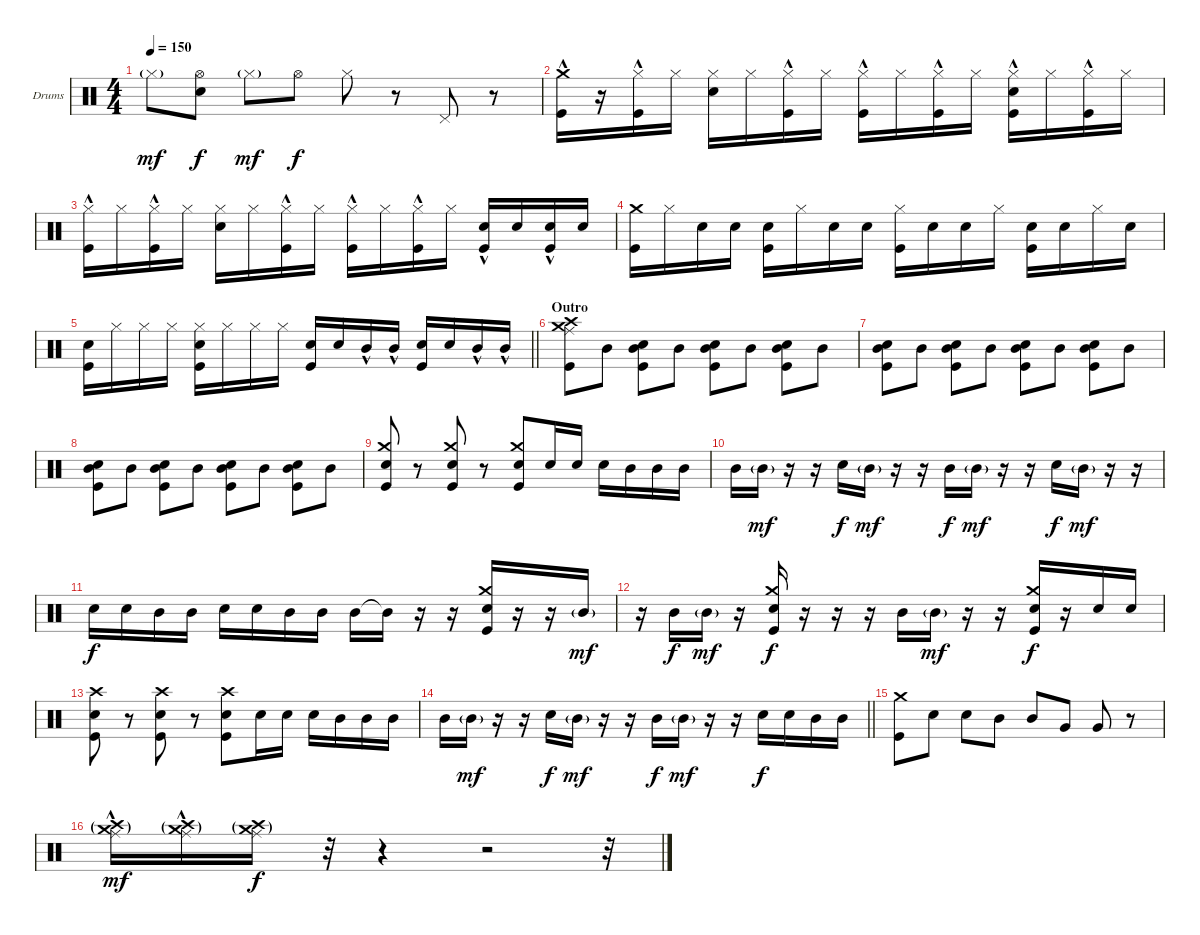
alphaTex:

\bracketExtendMode groupsimilarinstruments
\firstSystemTrackNameOrientation horizontal
\otherSystemsTrackNameOrientation horizontal
\track ("Drumkit" "Drums") {instrument percussion}
\staff {score}
\articulation defaults
\ts (4 4)
\tempo 150
\clef neutral
\ks c "Hi-Hat (closed)"{g}.8{dy mf}
("Hi-Hat (open)" "Snare (hit) 2").8{dy f} "Hi-Hat (closed)"{g}.8{dy mf} "Hi-Hat (open)".8{dy f} "Hi-Hat (closed)".8 r.8 "Pedal Hi-Hat (hit)".8 r.8 |
("Crash medium (hit)" "Kick (hit)"{hac}).16 r.16 ("Hi-Hat (closed)" "Kick (hit)"{hac}).16 "Hi-Hat (closed)".16 ("Hi-Hat (closed)" "Snare (hit) 2").16 "Hi-Hat (closed)".16 ("Hi-Hat (closed)" "Kick (hit)"{hac}).16 "Hi-Hat (closed)".16 ("Hi-Hat (closed)" "Kick (hit)"{hac}).16 "Hi-Hat (closed)".16 ("Hi-Hat (closed)" "Kick (hit)"{hac}).16 "Hi-Hat (closed)".16 ("Hi-Hat (closed)" "Snare (hit) 2" "Kick (hit)"{hac}).16 "Hi-Hat (closed)".16 ("Hi-Hat (closed)" "Kick (hit)"{hac}).16 "Hi-Hat (closed)".16 |
("Hi-Hat (closed)" "Kick (hit)"{hac}).16 "Hi-Hat (closed)".16 ("Hi-Hat (closed)" "Kick (hit)"{hac}).16 "Hi-Hat (closed)".16 ("Hi-Hat (closed)" "Snare (hit) 2").16 "Hi-Hat (closed)".16 ("Hi-Hat (closed)" "Kick (hit)"{hac}).16 "Hi-Hat (closed)".16 ("Hi-Hat (closed)" "Kick (hit)"{hac}).16 "Hi-Hat (closed)".16 ("Hi-Hat (closed)" "Kick (hit)"{hac}).16 "Hi-Hat (closed)".16 ("Snare (hit) 2" "Kick (hit)"{hac}).16 "Snare (hit) 2".16 ("Snare (hit) 2" "Kick (hit)"{hac}).16 "Snare (hit) 2".16 |
("Crash medium (hit)" "Kick (hit)").16 "Hi-Hat (closed)".16 "Snare (hit) 2".16 "Snare (hit) 2".16 ("Snare (hit) 2" "Kick (hit)").16 "Hi-Hat (closed)".16 "Snare (hit) 2".16 "Snare (hit) 2".16 ("Hi-Hat (closed)" "Kick (hit)").16 "Snare (hit) 2".16 "Snare (hit) 2".16 "Hi-Hat (closed)".16 ("Snare (hit) 2" "Kick (hit)").16 "Snare (hit) 2".16 "Hi-Hat (closed)".16 "Snare (hit) 2".16 |
\barLineRight lightlight
("Snare (hit) 2" "Kick (hit)").16 "Hi-Hat (closed)".16 "Hi-Hat (closed)".16 "Hi-Hat (closed)".16 ("Hi-Hat (closed)" "Snare (hit) 2" "Kick (hit)").16 "Hi-Hat (closed)".16 "Hi-Hat (closed)".16 "Hi-Hat (closed)".16 ("Snare (hit) 2" "Kick (hit)").16 "Snare (hit) 2".16 "Mid Tom (hit)"{hac}.16 "Mid Tom (hit)"{hac}.16 ("Snare (hit) 2" "Kick (hit)").16 "Snare (hit) 2".16 "Mid Tom (hit)"{hac}.16 "Mid Tom (hit)"{hac}.16 |
\section ("" "Outro")
("Crash medium (hit)" "Crash high (hit)" "Kick (hit)" "Ride (middle)").8 "Mid Tom (hit)".8 ("Snare (hit) 2" "Mid Tom (hit)" "Kick (hit)").8 "Mid Tom (hit)".8 ("Snare (hit) 2" "Mid Tom (hit)" "Kick (hit)").8 "Mid Tom (hit)".8 ("Snare (hit) 2" "Mid Tom (hit)" "Kick (hit)").8 "Mid Tom (hit)".8 |
("Snare (hit) 2" "Mid Tom (hit)" "Kick (hit)").8 "Mid Tom (hit)".8 ("Snare (hit) 2" "Mid Tom (hit)" "Kick (hit)").8 "Mid Tom (hit)".8 ("Snare (hit) 2" "Mid Tom (hit)" "Kick (hit)").8 "Mid Tom (hit)".8 ("Snare (hit) 2" "Mid Tom (hit)" "Kick (hit)").8 "Mid Tom (hit)".8 |
("Snare (hit) 2" "Mid Tom (hit)" "Kick (hit)").8 "Mid Tom (hit)".8 ("Snare (hit) 2" "Mid Tom (hit)" "Kick (hit)").8 "Mid Tom (hit)".8 ("Snare (hit) 2" "Mid Tom (hit)" "Kick (hit)").8 "Mid Tom (hit)".8 ("Snare (hit) 2" "Mid Tom (hit)" "Kick (hit)").8 "Mid Tom (hit)".8 |
("Kick (hit)" "Snare (hit) 2" "Crash medium (hit)").8 r.8 ("Kick (hit)" "Snare (hit) 2" "Crash medium (hit)").8 r.8 ("Kick (hit)" "Snare (hit) 2" "Crash medium (hit)").8 "Snare (hit) 2".16 "Snare (hit) 2".16 "Snare (hit) 2".16 "Mid Tom (hit)".16 "Mid Tom (hit)".16 "Mid Tom (hit)".16 |
"Mid Tom (hit)".16 "Mid Tom (hit)"{g}.16{dy mf} r.16 r.16 "Snare (hit) 2".16{dy f} "Mid Tom (hit)"{g}.16{dy mf} r.16 r.16 "Mid Tom (hit)".16{dy f} "Mid Tom (hit)"{g}.16{dy mf} r.16 r.16 "Snare (hit) 2".16{dy f} "Mid Tom (hit)"{g}.16{dy mf} r.16 r.16 |
"Snare (hit) 2".16{dy f} "Snare (hit) 2".16 "Mid Tom (hit)".16 "Mid Tom (hit)".16 "Snare (hit) 2".16 "Snare (hit) 2".16 "Mid Tom (hit)".16 "Mid Tom (hit)".16 "Mid Tom (hit)".16 "Mid Tom (hit)"{t}.16 r.16 r.16 ("Crash medium (hit)" "Snare (hit) 2" "Kick (hit)").16 r.16 r.16 "Mid Tom (hit)"{g}.16{dy mf} |
r.16 "Mid Tom (hit)".16{dy f} "Mid Tom (hit)"{g}.16{dy mf} r.16 ("Crash medium (hit)" "Kick (hit)" "Snare (hit) 2").16{dy f} r.16 r.16 r.16 "Mid Tom (hit)".16 "Mid Tom (hit)"{g}.16{dy mf} r.16 r.16 ("Crash medium (hit)" "Kick (hit)" "Snare (hit) 2").16{dy f} r.16 "Snare (hit) 2".16 "Snare (hit) 2".16 |
("Kick (hit)" "Snare (hit) 2" "Crash high (hit)").8 r.8 ("Kick (hit)" "Snare (hit) 2" "Crash high (hit)").8 r.8 ("Kick (hit)" "Snare (hit) 2" "Crash high (hit)").8 "Snare (hit) 2".16 "Snare (hit) 2".16 "Snare (hit) 2".16 "Mid Tom (hit)".16 "Mid Tom (hit)".16 "Mid Tom (hit)".16 |
\barLineRight lightlight "Mid Tom (hit)".16 "Mid Tom (hit)"{g}.16{dy mf}
r.16 r.16 "Snare (hit) 2".16{dy f} "Mid Tom (hit)"{g}.16{dy mf} r.16 r.16 "Mid Tom (hit)".16{dy f} "Mid Tom (hit)"{g}.16{dy mf} r.16 r.16 "Snare (hit) 2".16{dy f} "Snare (hit) 2".16 "Mid Tom (hit)".16 "Mid Tom (hit)".16 |
("Crash medium (hit)" "Kick (hit)").8 "Snare (hit) 2".8 "Snare (hit) 2".8 "Mid Tom (hit)".8 "Mid Tom (hit)".8 "Very Low Tom (hit)".8 "Very Low Tom (hit)".8 r.8 |
("Crash high (hit)"{g} "Crash medium (hit)"{g} "Ride (middle)"{hac}).16{dy mf} ("Crash high (hit)"{g} "Crash medium (hit)"{g} "Ride (middle)"{hac}).16 ("Crash high (hit)"{g} "Crash medium (hit)"{g} "Ride (middle)").16{dy f} r.32 r.4 r.2 r.32
